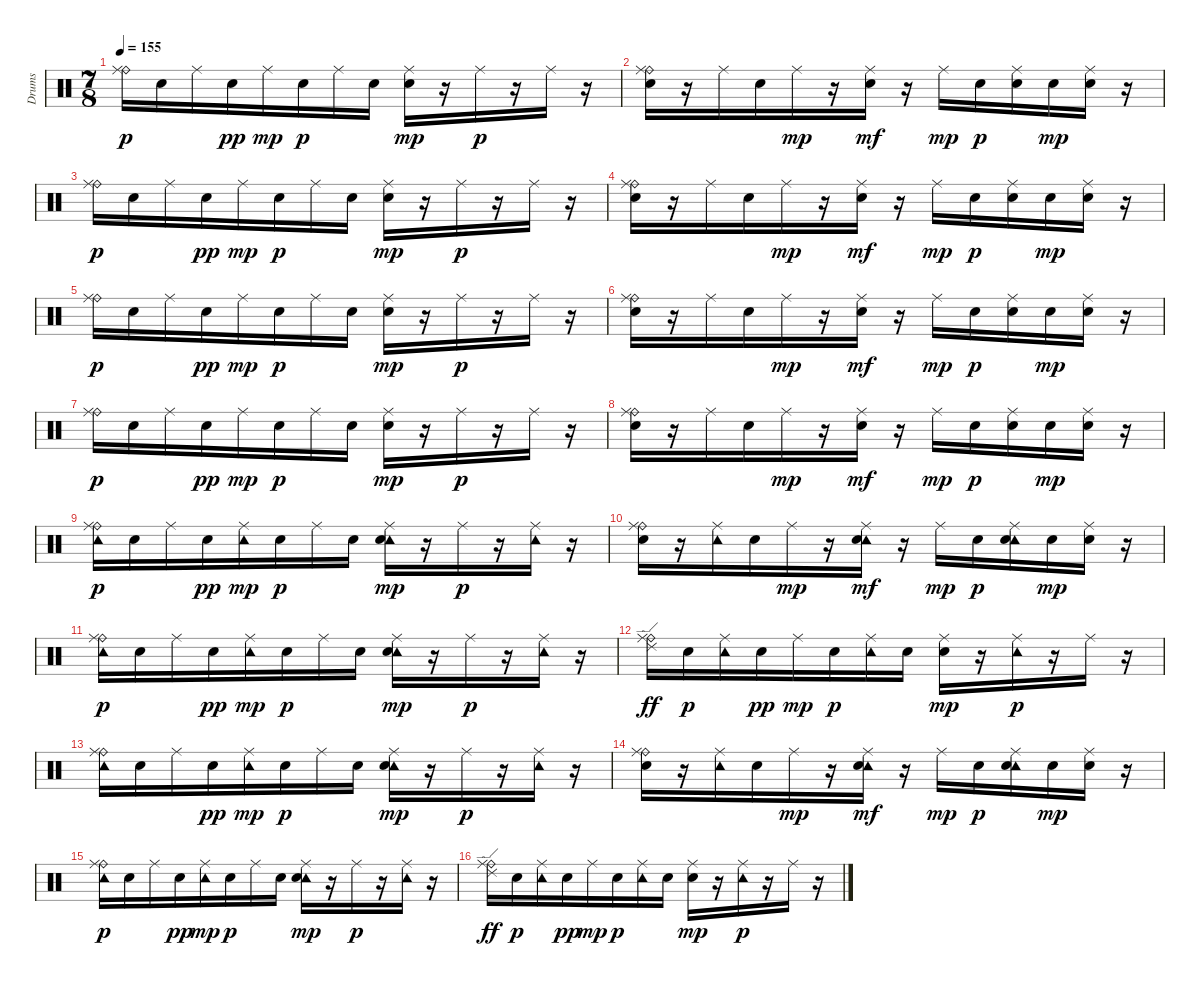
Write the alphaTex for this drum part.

\track ("Drums" "Drums") {instrument percussion}
\staff {score}
\articulation defaults
\ts (7 8)
\tempo 155
\clef neutral
\ks c
("Ride (bell)" "Ride (middle)").16{dy p} "Electric Snare (hit)".16 "Ride (middle)".16 "Electric Snare (hit)".16{dy pp} "Ride (middle)".16{dy mp} "Electric Snare (hit)".16{dy p} "Ride (middle)".16 "Electric Snare (hit)".16 ("Ride (middle)" "Electric Snare (hit)").16{dy mp} r.16 "Ride (middle)".16{dy p} r.16 "Ride (middle)".16 r.16 |
("Ride (bell)" "Ride (middle)" "Electric Snare (hit)").16 r.16 "Ride (middle)".16 "Electric Snare (hit)".16 "Ride (middle)".16{dy mp} r.16 ("Ride (middle)" "Electric Snare (hit)").16{dy mf} r.16 "Ride (middle)".16{dy mp} "Electric Snare (hit)".16{dy p} ("Ride (middle)" "Electric Snare (hit)").16 "Electric Snare (hit)".16{dy mp} ("Ride (middle)" "Electric Snare (hit)").16 r.16 |
("Ride (bell)" "Ride (middle)").16{dy p} "Electric Snare (hit)".16 "Ride (middle)".16 "Electric Snare (hit)".16{dy pp} "Ride (middle)".16{dy mp} "Electric Snare (hit)".16{dy p} "Ride (middle)".16 "Electric Snare (hit)".16 ("Ride (middle)" "Electric Snare (hit)").16{dy mp} r.16 "Ride (middle)".16{dy p} r.16 "Ride (middle)".16 r.16 |
("Ride (bell)" "Ride (middle)" "Electric Snare (hit)").16 r.16 "Ride (middle)".16 "Electric Snare (hit)".16 "Ride (middle)".16{dy mp} r.16 ("Ride (middle)" "Electric Snare (hit)").16{dy mf} r.16 "Ride (middle)".16{dy mp} "Electric Snare (hit)".16{dy p} ("Ride (middle)" "Electric Snare (hit)").16 "Electric Snare (hit)".16{dy mp} ("Ride (middle)" "Electric Snare (hit)").16 r.16 |
("Ride (bell)" "Ride (middle)").16{dy p} "Electric Snare (hit)".16 "Ride (middle)".16 "Electric Snare (hit)".16{dy pp} "Ride (middle)".16{dy mp} "Electric Snare (hit)".16{dy p} "Ride (middle)".16 "Electric Snare (hit)".16 ("Ride (middle)" "Electric Snare (hit)").16{dy mp} r.16 "Ride (middle)".16{dy p} r.16 "Ride (middle)".16 r.16 |
("Ride (bell)" "Ride (middle)" "Electric Snare (hit)").16 r.16 "Ride (middle)".16 "Electric Snare (hit)".16 "Ride (middle)".16{dy mp} r.16 ("Ride (middle)" "Electric Snare (hit)").16{dy mf} r.16 "Ride (middle)".16{dy mp} "Electric Snare (hit)".16{dy p} ("Ride (middle)" "Electric Snare (hit)").16 "Electric Snare (hit)".16{dy mp} ("Ride (middle)" "Electric Snare (hit)").16 r.16 |
("Ride (bell)" "Ride (middle)").16{dy p} "Electric Snare (hit)".16 "Ride (middle)".16 "Electric Snare (hit)".16{dy pp} "Ride (middle)".16{dy mp} "Electric Snare (hit)".16{dy p} "Ride (middle)".16 "Electric Snare (hit)".16 ("Ride (middle)" "Electric Snare (hit)").16{dy mp} r.16 "Ride (middle)".16{dy p} r.16 "Ride (middle)".16 r.16 |
("Ride (bell)" "Ride (middle)" "Electric Snare (hit)").16 r.16 "Ride (middle)".16 "Electric Snare (hit)".16 "Ride (middle)".16{dy mp} r.16 ("Ride (middle)" "Electric Snare (hit)").16{dy mf} r.16 "Ride (middle)".16{dy mp} "Electric Snare (hit)".16{dy p} ("Ride (middle)" "Electric Snare (hit)").16 "Electric Snare (hit)".16{dy mp} ("Ride (middle)" "Electric Snare (hit)").16 r.16 |
("Tambourine (hit)" "Ride (bell)" "Ride (middle)").16{dy p} "Electric Snare (hit)".16 "Ride (middle)".16 "Electric Snare (hit)".16{dy pp} ("Tambourine (hit)" "Ride (middle)").16{dy mp} "Electric Snare (hit)".16{dy p} "Ride (middle)".16 "Electric Snare (hit)".16 ("Tambourine (hit)" "Ride (middle)" "Electric Snare (hit)").16{dy mp} r.16 "Ride (middle)".16{dy p} r.16 ("Tambourine (hit)" "Ride (middle)").16 r.16 |
("Ride (bell)" "Ride (middle)" "Electric Snare (hit)").16 r.16 ("Tambourine (hit)" "Ride (middle)").16 "Electric Snare (hit)".16 "Ride (middle)".16{dy mp} r.16 ("Tambourine (hit)" "Ride (middle)" "Electric Snare (hit)").16{dy mf} r.16 "Ride (middle)".16{dy mp} "Electric Snare (hit)".16{dy p} ("Tambourine (hit)" "Ride (middle)" "Electric Snare (hit)").16 "Electric Snare (hit)".16{dy mp} ("Ride (middle)" "Electric Snare (hit)").16 r.16 |
("Tambourine (hit)" "Ride (bell)" "Ride (middle)").16{dy p} "Electric Snare (hit)".16 "Ride (middle)".16 "Electric Snare (hit)".16{dy pp} ("Tambourine (hit)" "Ride (middle)").16{dy mp} "Electric Snare (hit)".16{dy p} "Ride (middle)".16 "Electric Snare (hit)".16 ("Tambourine (hit)" "Ride (middle)" "Electric Snare (hit)").16{dy mp} r.16 "Ride (middle)".16{dy p} r.16 ("Tambourine (hit)" "Ride (middle)").16 r.16 |
("Ride (bell)" "Ride (middle)" "Ride (edge) 2").16{dy ff} "Electric Snare (hit)".16{dy p} ("Tambourine (hit)" "Ride (middle)").16 "Electric Snare (hit)".16{dy pp} "Ride (middle)".16{dy mp} "Electric Snare (hit)".16{dy p} ("Tambourine (hit)" "Ride (middle)").16 "Electric Snare (hit)".16 ("Ride (middle)" "Electric Snare (hit)").16{dy mp} r.16 ("Tambourine (hit)" "Ride (middle)").16{dy p} r.16 "Ride (middle)".16 r.16 |
("Tambourine (hit)" "Ride (bell)" "Ride (middle)").16 "Electric Snare (hit)".16 "Ride (middle)".16 "Electric Snare (hit)".16{dy pp} ("Tambourine (hit)" "Ride (middle)").16{dy mp} "Electric Snare (hit)".16{dy p} "Ride (middle)".16 "Electric Snare (hit)".16 ("Tambourine (hit)" "Ride (middle)" "Electric Snare (hit)").16{dy mp} r.16 "Ride (middle)".16{dy p} r.16 ("Tambourine (hit)" "Ride (middle)").16 r.16 |
("Ride (bell)" "Ride (middle)" "Electric Snare (hit)").16 r.16 ("Tambourine (hit)" "Ride (middle)").16 "Electric Snare (hit)".16 "Ride (middle)".16{dy mp} r.16 ("Tambourine (hit)" "Ride (middle)" "Electric Snare (hit)").16{dy mf} r.16 "Ride (middle)".16{dy mp} "Electric Snare (hit)".16{dy p} ("Tambourine (hit)" "Ride (middle)" "Electric Snare (hit)").16 "Electric Snare (hit)".16{dy mp} ("Ride (middle)" "Electric Snare (hit)").16 r.16 |
("Tambourine (hit)" "Ride (bell)" "Ride (middle)").16{dy p} "Electric Snare (hit)".16 "Ride (middle)".16 "Electric Snare (hit)".16{dy pp} ("Tambourine (hit)" "Ride (middle)").16{dy mp} "Electric Snare (hit)".16{dy p} "Ride (middle)".16 "Electric Snare (hit)".16 ("Tambourine (hit)" "Ride (middle)" "Electric Snare (hit)").16{dy mp} r.16 "Ride (middle)".16{dy p} r.16 ("Tambourine (hit)" "Ride (middle)").16 r.16 |
("Ride (bell)" "Ride (middle)" "Ride (edge) 2").16{dy ff} "Electric Snare (hit)".16{dy p} ("Tambourine (hit)" "Ride (middle)").16 "Electric Snare (hit)".16{dy pp} "Ride (middle)".16{dy mp} "Electric Snare (hit)".16{dy p} ("Tambourine (hit)" "Ride (middle)").16 "Electric Snare (hit)".16 ("Ride (middle)" "Electric Snare (hit)").16{dy mp} r.16 ("Tambourine (hit)" "Ride (middle)").16{dy p} r.16 "Ride (middle)".16 r.16
